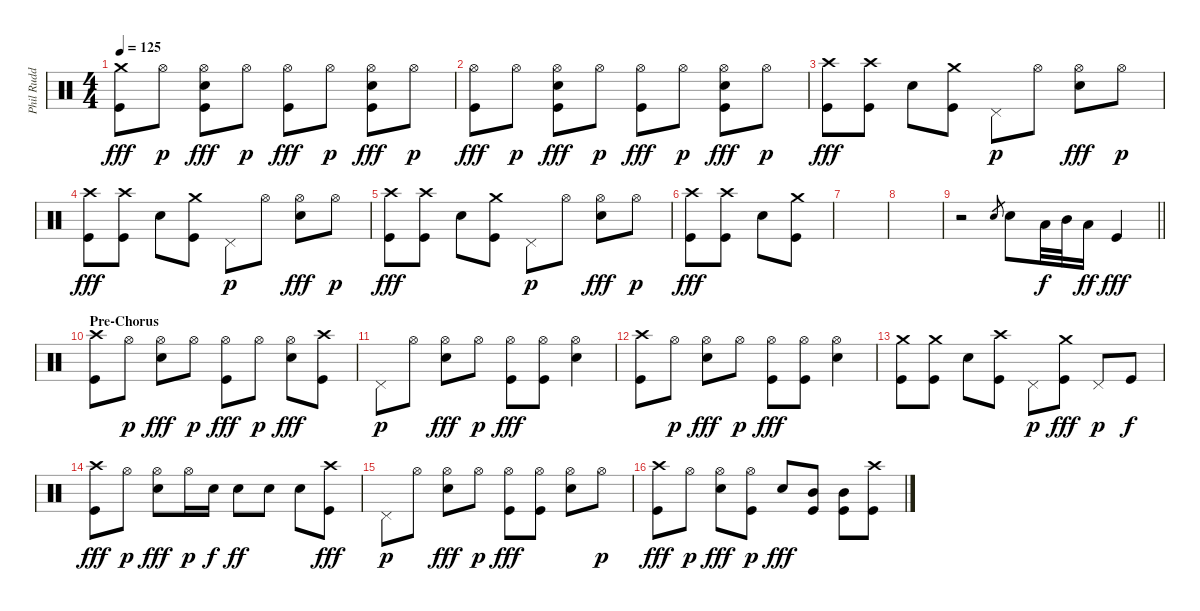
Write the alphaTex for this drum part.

\track ("Phil Rudd" "Phil Rudd") {instrument percussion}
\staff {score}
\articulation defaults
\ts (4 4)
\tempo 125
\clef neutral
\ks c
("Crash medium (hit)" "Kick (hit)").8{dy fff} "Hi-Hat (open)".8{dy p} ("Hi-Hat (open)" "Snare (hit) 2" "Kick (hit)").8{dy fff} "Hi-Hat (open)".8{dy p} ("Hi-Hat (open)" "Kick (hit)").8{dy fff} "Hi-Hat (open)".8{dy p} ("Hi-Hat (open)" "Snare (hit) 2" "Kick (hit)").8{dy fff} "Hi-Hat (open)".8{dy p} |
("Hi-Hat (open)" "Kick (hit)").8{dy fff} "Hi-Hat (open)".8{dy p} ("Hi-Hat (open)" "Snare (hit) 2" "Kick (hit)").8{dy fff} "Hi-Hat (open)".8{dy p} ("Hi-Hat (open)" "Kick (hit)").8{dy fff} "Hi-Hat (open)".8{dy p} ("Hi-Hat (open)" "Snare (hit) 2" "Kick (hit)").8{dy fff} "Hi-Hat (open)".8{dy p} |
("Crash high (hit)" "Kick (hit)").8{dy fff} ("Crash high (hit)" "Kick (hit)").8 "Snare (hit) 2".8 ("Crash medium (hit)" "Kick (hit)").8 "Pedal Hi-Hat (hit)".8{dy p} "Hi-Hat (open)".8 ("Hi-Hat (open)" "Snare (hit) 2").8{dy fff} "Hi-Hat (open)".8{dy p} |
("Crash high (hit)" "Kick (hit)").8{dy fff} ("Crash high (hit)" "Kick (hit)").8 "Snare (hit) 2".8 ("Crash medium (hit)" "Kick (hit)").8 "Pedal Hi-Hat (hit)".8{dy p} "Hi-Hat (open)".8 ("Hi-Hat (open)" "Snare (hit) 2").8{dy fff} "Hi-Hat (open)".8{dy p} |
("Crash high (hit)" "Kick (hit)").8{dy fff} ("Crash high (hit)" "Kick (hit)").8 "Snare (hit) 2".8 ("Crash medium (hit)" "Kick (hit)").8 "Pedal Hi-Hat (hit)".8{dy p} "Hi-Hat (open)".8 ("Hi-Hat (open)" "Snare (hit) 2").8{dy fff} "Hi-Hat (open)".8{dy p} |
("Crash high (hit)" "Kick (hit)").8{dy fff} ("Crash high (hit)" "Kick (hit)").8 "Snare (hit) 2".8 ("Crash medium (hit)" "Kick (hit)").8 |
|
|
\barLineRight lightlight
r.2 "Snare (hit) 2".8{gr} "Snare (hit) 2".8 "Low Floor Tom (hit)".32{dy f} "Mid Tom (hit)".32 "Low Floor Tom (hit)".16{dy ff} "Kick (hit)".4{dy fff} |
\section ("" "Pre-Chorus")
("Crash high (hit)" "Kick (hit)").8 "Hi-Hat (open)".8{dy p} ("Hi-Hat (open)" "Snare (hit) 2").8{dy fff} "Hi-Hat (open)".8{dy p} ("Hi-Hat (open)" "Kick (hit)").8{dy fff} "Hi-Hat (open)".8{dy p} ("Hi-Hat (open)" "Snare (hit) 2").8{dy fff} ("Crash high (hit)" "Kick (hit)").8 |
"Pedal Hi-Hat (hit)".8{dy p} "Hi-Hat (open)".8 ("Hi-Hat (open)" "Snare (hit) 2").8{dy fff} "Hi-Hat (open)".8{dy p} ("Hi-Hat (open)" "Kick (hit)").8{dy fff} ("Hi-Hat (open)" "Kick (hit)").8 ("Hi-Hat (open)" "Snare (hit) 2").4 |
("Crash high (hit)" "Kick (hit)").8 "Hi-Hat (open)".8{dy p} ("Hi-Hat (open)" "Snare (hit) 2").8{dy fff} "Hi-Hat (open)".8{dy p} ("Hi-Hat (open)" "Kick (hit)").8{dy fff} ("Hi-Hat (open)" "Kick (hit)").8 ("Hi-Hat (open)" "Snare (hit) 2").4 |
("Crash medium (hit)" "Kick (hit)").8 ("Crash medium (hit)" "Kick (hit)").8 "Snare (hit) 2".8 ("Crash high (hit)" "Kick (hit)").8 "Pedal Hi-Hat (hit)".8{dy p} ("Crash medium (hit)" "Kick (hit)").8{dy fff} "Pedal Hi-Hat (hit)".8{dy p} "Kick (hit)".8{dy f} |
("Crash high (hit)" "Kick (hit)").8{dy fff} "Hi-Hat (open)".8{dy p} ("Hi-Hat (open)" "Snare (hit) 2").8{dy fff} "Hi-Hat (open)".16{dy p} "Snare (hit) 2".16{dy f} "Snare (hit) 2".8{dy ff} "Snare (hit) 2".8 "Snare (hit) 2".8 ("Crash high (hit)" "Kick (hit)").8{dy fff} |
"Pedal Hi-Hat (hit)".8{dy p} "Hi-Hat (open)".8 ("Hi-Hat (open)" "Snare (hit) 2").8{dy fff} "Hi-Hat (open)".8{dy p} ("Hi-Hat (open)" "Kick (hit)").8{dy fff} ("Hi-Hat (open)" "Kick (hit)").8 ("Hi-Hat (open)" "Snare (hit) 2").8 "Hi-Hat (open)".8{dy p} |
("Crash high (hit)" "Kick (hit)").8{dy fff} "Hi-Hat (open)".8{dy p} ("Hi-Hat (open)" "Snare (hit) 2").8{dy fff} ("Hi-Hat (open)" "Kick (hit)").8{dy p} "Snare (hit) 2".8{dy fff} ("Mid Tom (hit)" "Kick (hit)").8 ("Mid Tom (hit)" "Kick (hit)").8 ("Crash high (hit)" "Kick (hit)").8
